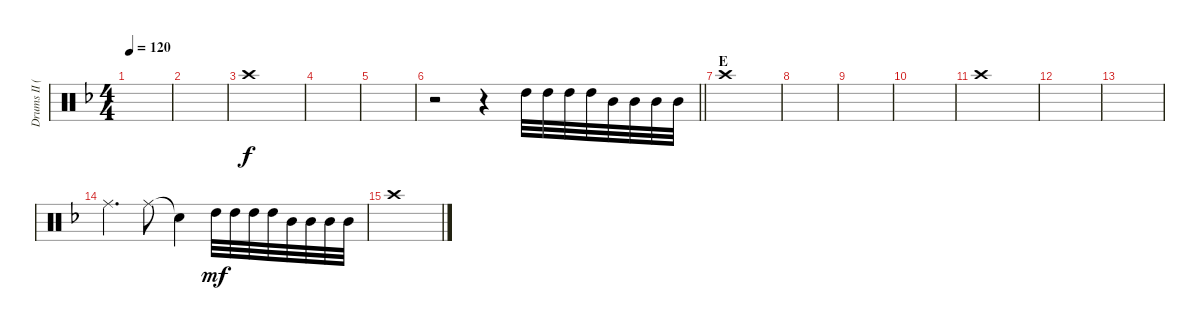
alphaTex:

\track ("Drums II (Tainaka Ritsu)" "Drums II (") {instrument percussion}
\staff {score}
\articulation defaults
\ts (4 4)
\tempo 120
\clef neutral
\ks f
|
|
"Crash high (hit)".1 |
|
|
\barLineRight lightlight
r.2 r.4 "High Tom (hit)".32 "High Tom (hit)".32 "High Tom (hit)".32 "High Tom (hit)".32 "Mid Tom (hit)".32 "Mid Tom (hit)".32 "Mid Tom (hit)".32 "Mid Tom (hit)".32 |
\section ("" "E")
"Crash high (hit)".1 |
|
|
|
"Crash high (hit)".1 |
|
|
"Ride (middle)".4{d dy f} "Ride (middle)".8 "Snare (hit)"{t}.4 "High Tom (hit)".32{dy mf} "High Tom (hit)".32 "High Tom (hit)".32 "High Tom (hit)".32 "Mid Tom (hit)".32 "Mid Tom (hit)".32 "Mid Tom (hit)".32 "Mid Tom (hit)".32 |
"Crash high (hit)".1
